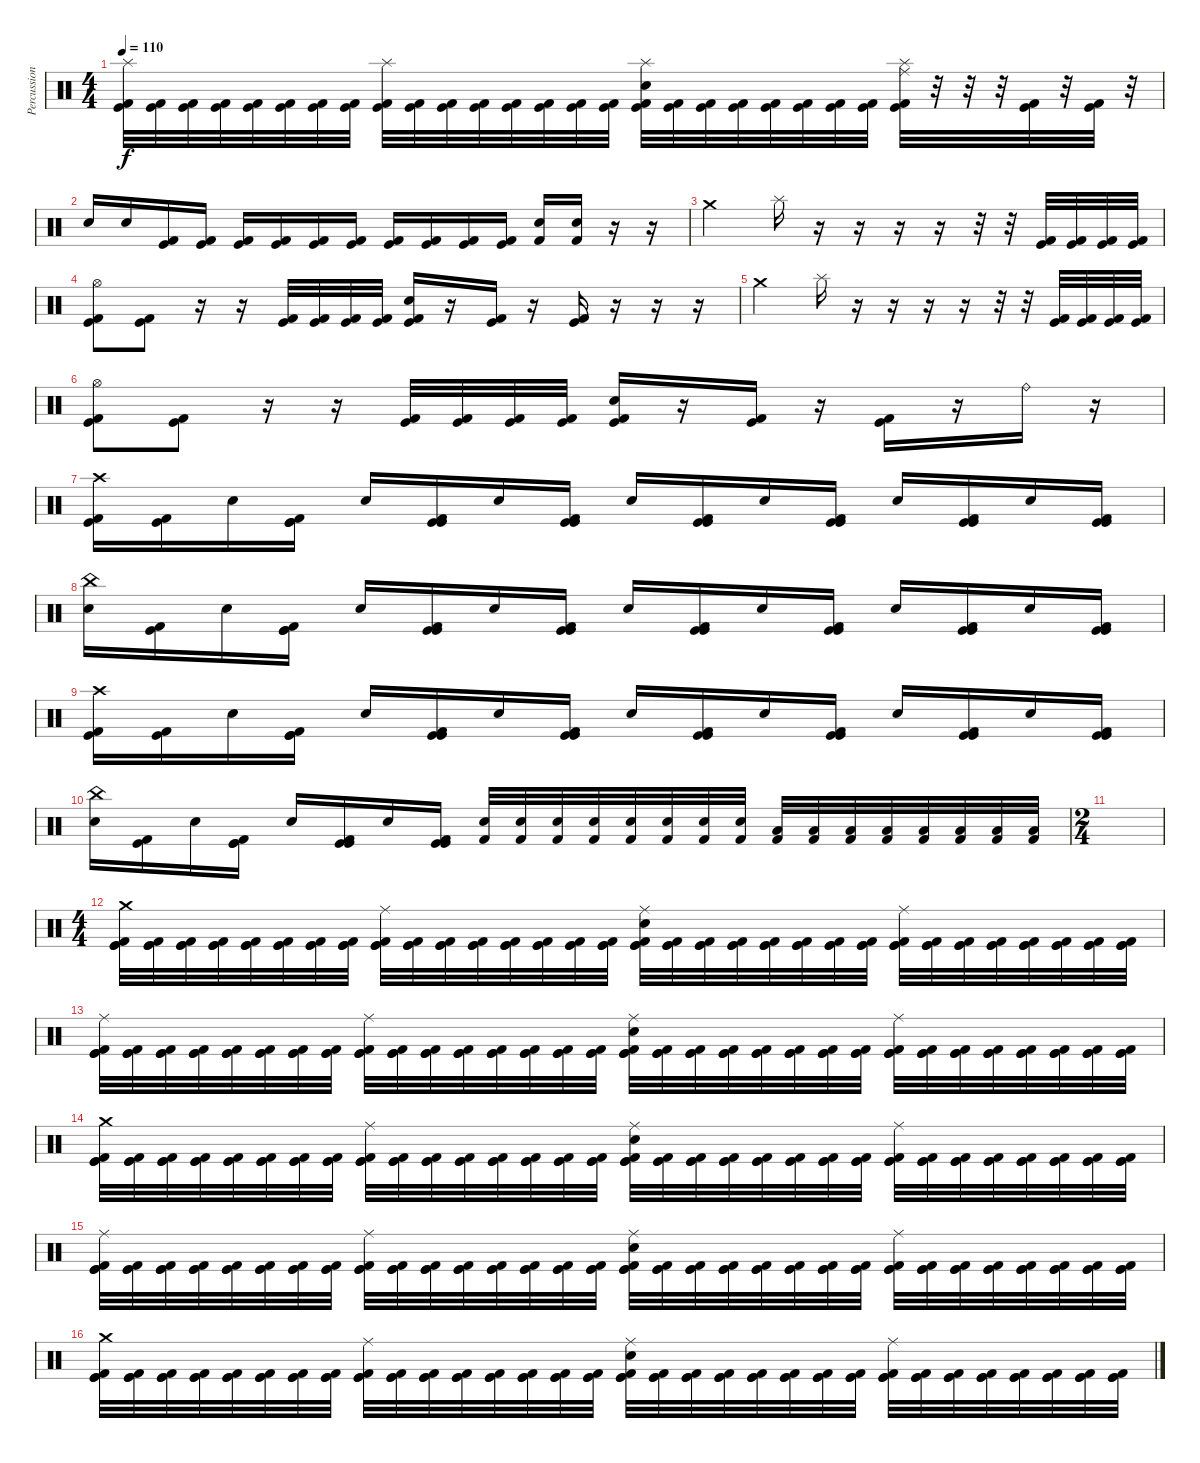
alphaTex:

\track ("Percussion" "Percussion") {instrument percussion}
\staff {score}
\articulation defaults
\ts (4 4)
\tempo 110
\clef neutral
\ks c
("Splash (hit)" "Kick (hit)" "Kick (hit) 2").32{dy f} ("Kick (hit)" "Kick (hit) 2").32 ("Kick (hit)" "Kick (hit) 2").32 ("Kick (hit)" "Kick (hit) 2").32 ("Kick (hit)" "Kick (hit) 2").32 ("Kick (hit)" "Kick (hit) 2").32 ("Kick (hit)" "Kick (hit) 2").32 ("Kick (hit)" "Kick (hit) 2").32 ("Splash (hit)" "Kick (hit)" "Kick (hit) 2").32 ("Kick (hit)" "Kick (hit) 2").32 ("Kick (hit)" "Kick (hit) 2").32 ("Kick (hit)" "Kick (hit) 2").32 ("Kick (hit)" "Kick (hit) 2").32 ("Kick (hit)" "Kick (hit) 2").32 ("Kick (hit)" "Kick (hit) 2").32 ("Kick (hit)" "Kick (hit) 2").32 ("Splash (hit)" "Electric Snare (hit)" "Kick (hit)" "Kick (hit) 2").32 ("Kick (hit)" "Kick (hit) 2").32 ("Kick (hit)" "Kick (hit) 2").32 ("Kick (hit)" "Kick (hit) 2").32 ("Kick (hit)" "Kick (hit) 2").32 ("Kick (hit)" "Kick (hit) 2").32 ("Kick (hit)" "Kick (hit) 2").32 ("Kick (hit)" "Kick (hit) 2").32 ("Splash (hit)" "Ride (middle)" "Kick (hit)" "Kick (hit) 2").32 r.32 r.32 r.32 ("Kick (hit)" "Kick (hit) 2").32 r.32 ("Kick (hit)" "Kick (hit) 2").32 r.32 |
"Electric Snare (hit)".16 "Electric Snare (hit)".16 ("Kick (hit)" "Kick (hit) 2").16 ("Kick (hit)" "Kick (hit) 2").16 ("Kick (hit)" "Kick (hit) 2").16 ("Kick (hit)" "Kick (hit) 2").16 ("Kick (hit)" "Kick (hit) 2").16 ("Kick (hit)" "Kick (hit) 2").16 ("Kick (hit)" "Kick (hit) 2").16 ("Kick (hit)" "Kick (hit) 2").16 ("Kick (hit)" "Kick (hit) 2").16 ("Kick (hit)" "Kick (hit) 2").16 ("Electric Snare (hit)" "Kick (hit) 2").16 ("Electric Snare (hit)" "Kick (hit) 2").16 r.16 r.16 |
"Crash medium (hit)".2 "Splash (hit)".16 r.16 r.16 r.16 r.16 r.32 r.32 ("Kick (hit)" "Kick (hit) 2").32 ("Kick (hit)" "Kick (hit) 2").32 ("Kick (hit)" "Kick (hit) 2").32 ("Kick (hit)" "Kick (hit) 2").32 |
("Hi-Hat (open)" "Kick (hit)" "Kick (hit) 2").8 ("Kick (hit)" "Kick (hit) 2").8 r.16 r.16 ("Kick (hit)" "Kick (hit) 2").32 ("Kick (hit)" "Kick (hit) 2").32 ("Kick (hit)" "Kick (hit) 2").32 ("Kick (hit)" "Kick (hit) 2").32 ("Electric Snare (hit)" "Kick (hit)" "Kick (hit) 2").16 r.16 ("Kick (hit)" "Kick (hit) 2").16 r.16 ("Kick (hit)" "Kick (hit) 2").16 r.16 r.16 r.16 |
"Crash medium (hit)".2 "Splash (hit)".16 r.16 r.16 r.16 r.16 r.32 r.32 ("Kick (hit)" "Kick (hit) 2").32 ("Kick (hit)" "Kick (hit) 2").32 ("Kick (hit)" "Kick (hit) 2").32 ("Kick (hit)" "Kick (hit) 2").32 |
("Hi-Hat (open)" "Kick (hit)" "Kick (hit) 2").8 ("Kick (hit)" "Kick (hit) 2").8 r.16 r.16 ("Kick (hit)" "Kick (hit) 2").32 ("Kick (hit)" "Kick (hit) 2").32 ("Kick (hit)" "Kick (hit) 2").32 ("Kick (hit)" "Kick (hit) 2").32 ("Electric Snare (hit)" "Kick (hit)" "Kick (hit) 2").16 r.16 ("Kick (hit)" "Kick (hit) 2").16 r.16 ("Kick (hit)" "Kick (hit) 2").16 r.16 "Ride (bell)".16 r.16 |
("Crash high (hit)" "Kick (hit)" "Kick (hit) 2").16 ("Kick (hit)" "Kick (hit) 2").16 "Electric Snare (hit)".16 ("Kick (hit)" "Kick (hit)" "Kick (hit) 2").16 "Electric Snare (hit)".16 ("Kick (hit)" "Kick (hit)" "Kick (hit) 2").16 "Electric Snare (hit)".16 ("Kick (hit)" "Kick (hit)" "Kick (hit) 2").16 "Electric Snare (hit)".16 ("Kick (hit)" "Kick (hit)" "Kick (hit) 2").16 "Electric Snare (hit)".16 ("Kick (hit)" "Kick (hit)" "Kick (hit) 2").16 "Electric Snare (hit)".16 ("Kick (hit)" "Kick (hit)" "Kick (hit) 2").16 "Electric Snare (hit)".16 ("Kick (hit)" "Kick (hit)" "Kick (hit) 2").16 |
("China (hit)" "Electric Snare (hit)").16 ("Kick (hit)" "Kick (hit) 2").16 "Electric Snare (hit)".16 ("Kick (hit)" "Kick (hit)" "Kick (hit) 2").16 "Electric Snare (hit)".16 ("Kick (hit)" "Kick (hit)" "Kick (hit) 2").16 "Electric Snare (hit)".16 ("Kick (hit)" "Kick (hit)" "Kick (hit) 2").16 "Electric Snare (hit)".16 ("Kick (hit)" "Kick (hit)" "Kick (hit) 2").16 "Electric Snare (hit)".16 ("Kick (hit)" "Kick (hit)" "Kick (hit) 2").16 "Electric Snare (hit)".16 ("Kick (hit)" "Kick (hit)" "Kick (hit) 2").16 "Electric Snare (hit)".16 ("Kick (hit)" "Kick (hit)" "Kick (hit) 2").16 |
("Crash high (hit)" "Kick (hit)" "Kick (hit) 2").16 ("Kick (hit)" "Kick (hit) 2").16 "Electric Snare (hit)".16 ("Kick (hit)" "Kick (hit)" "Kick (hit) 2").16 "Electric Snare (hit)".16 ("Kick (hit)" "Kick (hit)" "Kick (hit) 2").16 "Electric Snare (hit)".16 ("Kick (hit)" "Kick (hit)" "Kick (hit) 2").16 "Electric Snare (hit)".16 ("Kick (hit)" "Kick (hit)" "Kick (hit) 2").16 "Electric Snare (hit)".16 ("Kick (hit)" "Kick (hit)" "Kick (hit) 2").16 "Electric Snare (hit)".16 ("Kick (hit)" "Kick (hit)" "Kick (hit) 2").16 "Electric Snare (hit)".16 ("Kick (hit)" "Kick (hit)" "Kick (hit) 2").16 |
("China (hit)" "Electric Snare (hit)").16 ("Kick (hit)" "Kick (hit) 2").16 "Electric Snare (hit)".16 ("Kick (hit)" "Kick (hit)" "Kick (hit) 2").16 "Electric Snare (hit)".16 ("Kick (hit)" "Kick (hit)" "Kick (hit) 2").16 "Electric Snare (hit)".16 ("Kick (hit)" "Kick (hit)" "Kick (hit) 2").16 ("Electric Snare (hit)" "Kick (hit) 2").32 ("Electric Snare (hit)" "Kick (hit) 2").32 ("Electric Snare (hit)" "Kick (hit) 2").32 ("Electric Snare (hit)" "Kick (hit) 2").32 ("Electric Snare (hit)" "Kick (hit) 2").32 ("Electric Snare (hit)" "Kick (hit) 2").32 ("Electric Snare (hit)" "Kick (hit) 2").32 ("Electric Snare (hit)" "Kick (hit) 2").32 ("Low Tom (hit)" "Kick (hit) 2").32 ("Low Tom (hit)" "Kick (hit) 2").32 ("Low Tom (hit)" "Kick (hit) 2").32 ("Low Tom (hit)" "Kick (hit) 2").32 ("Low Tom (hit)" "Kick (hit) 2").32 ("Low Tom (hit)" "Kick (hit) 2").32 ("Low Tom (hit)" "Kick (hit) 2").32 ("Low Tom (hit)" "Kick (hit) 2").32 |
\ts (2 4)
|
\ts (4 4)
("Kick (hit)" "Crash medium (hit)" "Kick (hit)" "Kick (hit) 2").32 ("Kick (hit)" "Kick (hit)" "Kick (hit) 2").32 ("Kick (hit)" "Kick (hit)" "Kick (hit) 2").32 ("Kick (hit)" "Kick (hit)" "Kick (hit) 2").32 ("Kick (hit)" "Kick (hit)" "Kick (hit) 2").32 ("Kick (hit)" "Kick (hit)" "Kick (hit) 2").32 ("Kick (hit)" "Kick (hit)" "Kick (hit) 2").32 ("Kick (hit)" "Kick (hit)" "Kick (hit) 2").32 ("Kick (hit)" "Ride (middle)" "Kick (hit)" "Kick (hit) 2").32 ("Kick (hit)" "Kick (hit)" "Kick (hit) 2").32 ("Kick (hit)" "Kick (hit)" "Kick (hit) 2").32 ("Kick (hit)" "Kick (hit)" "Kick (hit) 2").32 ("Kick (hit)" "Kick (hit)" "Kick (hit) 2").32 ("Kick (hit)" "Kick (hit)" "Kick (hit) 2").32 ("Kick (hit)" "Kick (hit)" "Kick (hit) 2").32 ("Kick (hit)" "Kick (hit)" "Kick (hit) 2").32 ("Kick (hit)" "Electric Snare (hit)" "Ride (middle)" "Kick (hit)" "Kick (hit) 2").32 ("Kick (hit)" "Kick (hit)" "Kick (hit) 2").32 ("Kick (hit)" "Kick (hit)" "Kick (hit) 2").32 ("Kick (hit)" "Kick (hit)" "Kick (hit) 2").32 ("Kick (hit)" "Kick (hit)" "Kick (hit) 2").32 ("Kick (hit)" "Kick (hit)" "Kick (hit) 2").32 ("Kick (hit)" "Kick (hit)" "Kick (hit) 2").32 ("Kick (hit)" "Kick (hit)" "Kick (hit) 2").32 ("Kick (hit)" "Ride (middle)" "Kick (hit)" "Kick (hit) 2").32 ("Kick (hit)" "Kick (hit)" "Kick (hit) 2").32 ("Kick (hit)" "Kick (hit)" "Kick (hit) 2").32 ("Kick (hit)" "Kick (hit)" "Kick (hit) 2").32 ("Kick (hit)" "Kick (hit)" "Kick (hit) 2").32 ("Kick (hit)" "Kick (hit)" "Kick (hit) 2").32 ("Kick (hit)" "Kick (hit)" "Kick (hit) 2").32 ("Kick (hit)" "Kick (hit)" "Kick (hit) 2").32 |
("Kick (hit)" "Ride (middle)" "Kick (hit)" "Kick (hit) 2").32 ("Kick (hit)" "Kick (hit)" "Kick (hit) 2").32 ("Kick (hit)" "Kick (hit)" "Kick (hit) 2").32 ("Kick (hit)" "Kick (hit)" "Kick (hit) 2").32 ("Kick (hit)" "Kick (hit)" "Kick (hit) 2").32 ("Kick (hit)" "Kick (hit)" "Kick (hit) 2").32 ("Kick (hit)" "Kick (hit)" "Kick (hit) 2").32 ("Kick (hit)" "Kick (hit)" "Kick (hit) 2").32 ("Kick (hit)" "Ride (middle)" "Kick (hit)" "Kick (hit) 2").32 ("Kick (hit)" "Kick (hit)" "Kick (hit) 2").32 ("Kick (hit)" "Kick (hit)" "Kick (hit) 2").32 ("Kick (hit)" "Kick (hit)" "Kick (hit) 2").32 ("Kick (hit)" "Kick (hit)" "Kick (hit) 2").32 ("Kick (hit)" "Kick (hit)" "Kick (hit) 2").32 ("Kick (hit)" "Kick (hit)" "Kick (hit) 2").32 ("Kick (hit)" "Kick (hit)" "Kick (hit) 2").32 ("Kick (hit)" "Electric Snare (hit)" "Ride (middle)" "Kick (hit)" "Kick (hit) 2").32 ("Kick (hit)" "Kick (hit)" "Kick (hit) 2").32 ("Kick (hit)" "Kick (hit)" "Kick (hit) 2").32 ("Kick (hit)" "Kick (hit)" "Kick (hit) 2").32 ("Kick (hit)" "Kick (hit)" "Kick (hit) 2").32 ("Kick (hit)" "Kick (hit)" "Kick (hit) 2").32 ("Kick (hit)" "Kick (hit)" "Kick (hit) 2").32 ("Kick (hit)" "Kick (hit)" "Kick (hit) 2").32 ("Kick (hit)" "Ride (middle)" "Kick (hit)" "Kick (hit) 2").32 ("Kick (hit)" "Kick (hit)" "Kick (hit) 2").32 ("Kick (hit)" "Kick (hit)" "Kick (hit) 2").32 ("Kick (hit)" "Kick (hit)" "Kick (hit) 2").32 ("Kick (hit)" "Kick (hit)" "Kick (hit) 2").32 ("Kick (hit)" "Kick (hit)" "Kick (hit) 2").32 ("Kick (hit)" "Kick (hit)" "Kick (hit) 2").32 ("Kick (hit)" "Kick (hit)" "Kick (hit) 2").32 |
("Kick (hit)" "Crash medium (hit)" "Kick (hit)" "Kick (hit) 2").32 ("Kick (hit)" "Kick (hit)" "Kick (hit) 2").32 ("Kick (hit)" "Kick (hit)" "Kick (hit) 2").32 ("Kick (hit)" "Kick (hit)" "Kick (hit) 2").32 ("Kick (hit)" "Kick (hit)" "Kick (hit) 2").32 ("Kick (hit)" "Kick (hit)" "Kick (hit) 2").32 ("Kick (hit)" "Kick (hit)" "Kick (hit) 2").32 ("Kick (hit)" "Kick (hit)" "Kick (hit) 2").32 ("Kick (hit)" "Ride (middle)" "Kick (hit)" "Kick (hit) 2").32 ("Kick (hit)" "Kick (hit)" "Kick (hit) 2").32 ("Kick (hit)" "Kick (hit)" "Kick (hit) 2").32 ("Kick (hit)" "Kick (hit)" "Kick (hit) 2").32 ("Kick (hit)" "Kick (hit)" "Kick (hit) 2").32 ("Kick (hit)" "Kick (hit)" "Kick (hit) 2").32 ("Kick (hit)" "Kick (hit)" "Kick (hit) 2").32 ("Kick (hit)" "Kick (hit)" "Kick (hit) 2").32 ("Kick (hit)" "Electric Snare (hit)" "Ride (middle)" "Kick (hit)" "Kick (hit) 2").32 ("Kick (hit)" "Kick (hit)" "Kick (hit) 2").32 ("Kick (hit)" "Kick (hit)" "Kick (hit) 2").32 ("Kick (hit)" "Kick (hit)" "Kick (hit) 2").32 ("Kick (hit)" "Kick (hit)" "Kick (hit) 2").32 ("Kick (hit)" "Kick (hit)" "Kick (hit) 2").32 ("Kick (hit)" "Kick (hit)" "Kick (hit) 2").32 ("Kick (hit)" "Kick (hit)" "Kick (hit) 2").32 ("Kick (hit)" "Ride (middle)" "Kick (hit)" "Kick (hit) 2").32 ("Kick (hit)" "Kick (hit)" "Kick (hit) 2").32 ("Kick (hit)" "Kick (hit)" "Kick (hit) 2").32 ("Kick (hit)" "Kick (hit)" "Kick (hit) 2").32 ("Kick (hit)" "Kick (hit)" "Kick (hit) 2").32 ("Kick (hit)" "Kick (hit)" "Kick (hit) 2").32 ("Kick (hit)" "Kick (hit)" "Kick (hit) 2").32 ("Kick (hit)" "Kick (hit)" "Kick (hit) 2").32 |
("Kick (hit)" "Ride (middle)" "Kick (hit)" "Kick (hit) 2").32 ("Kick (hit)" "Kick (hit)" "Kick (hit) 2").32 ("Kick (hit)" "Kick (hit)" "Kick (hit) 2").32 ("Kick (hit)" "Kick (hit)" "Kick (hit) 2").32 ("Kick (hit)" "Kick (hit)" "Kick (hit) 2").32 ("Kick (hit)" "Kick (hit)" "Kick (hit) 2").32 ("Kick (hit)" "Kick (hit)" "Kick (hit) 2").32 ("Kick (hit)" "Kick (hit)" "Kick (hit) 2").32 ("Kick (hit)" "Ride (middle)" "Kick (hit)" "Kick (hit) 2").32 ("Kick (hit)" "Kick (hit)" "Kick (hit) 2").32 ("Kick (hit)" "Kick (hit)" "Kick (hit) 2").32 ("Kick (hit)" "Kick (hit)" "Kick (hit) 2").32 ("Kick (hit)" "Kick (hit)" "Kick (hit) 2").32 ("Kick (hit)" "Kick (hit)" "Kick (hit) 2").32 ("Kick (hit)" "Kick (hit)" "Kick (hit) 2").32 ("Kick (hit)" "Kick (hit)" "Kick (hit) 2").32 ("Kick (hit)" "Electric Snare (hit)" "Ride (middle)" "Kick (hit)" "Kick (hit) 2").32 ("Kick (hit)" "Kick (hit)" "Kick (hit) 2").32 ("Kick (hit)" "Kick (hit)" "Kick (hit) 2").32 ("Kick (hit)" "Kick (hit)" "Kick (hit) 2").32 ("Kick (hit)" "Kick (hit)" "Kick (hit) 2").32 ("Kick (hit)" "Kick (hit)" "Kick (hit) 2").32 ("Kick (hit)" "Kick (hit)" "Kick (hit) 2").32 ("Kick (hit)" "Kick (hit)" "Kick (hit) 2").32 ("Kick (hit)" "Ride (middle)" "Kick (hit)" "Kick (hit) 2").32 ("Kick (hit)" "Kick (hit)" "Kick (hit) 2").32 ("Kick (hit)" "Kick (hit)" "Kick (hit) 2").32 ("Kick (hit)" "Kick (hit)" "Kick (hit) 2").32 ("Kick (hit)" "Kick (hit)" "Kick (hit) 2").32 ("Kick (hit)" "Kick (hit)" "Kick (hit) 2").32 ("Kick (hit)" "Kick (hit)" "Kick (hit) 2").32 ("Kick (hit)" "Kick (hit)" "Kick (hit) 2").32 |
("Kick (hit)" "Crash medium (hit)" "Kick (hit)" "Kick (hit) 2").32 ("Kick (hit)" "Kick (hit)" "Kick (hit) 2").32 ("Kick (hit)" "Kick (hit)" "Kick (hit) 2").32 ("Kick (hit)" "Kick (hit)" "Kick (hit) 2").32 ("Kick (hit)" "Kick (hit)" "Kick (hit) 2").32 ("Kick (hit)" "Kick (hit)" "Kick (hit) 2").32 ("Kick (hit)" "Kick (hit)" "Kick (hit) 2").32 ("Kick (hit)" "Kick (hit)" "Kick (hit) 2").32 ("Kick (hit)" "Ride (middle)" "Kick (hit)" "Kick (hit) 2").32 ("Kick (hit)" "Kick (hit)" "Kick (hit) 2").32 ("Kick (hit)" "Kick (hit)" "Kick (hit) 2").32 ("Kick (hit)" "Kick (hit)" "Kick (hit) 2").32 ("Kick (hit)" "Kick (hit)" "Kick (hit) 2").32 ("Kick (hit)" "Kick (hit)" "Kick (hit) 2").32 ("Kick (hit)" "Kick (hit)" "Kick (hit) 2").32 ("Kick (hit)" "Kick (hit)" "Kick (hit) 2").32 ("Kick (hit)" "Electric Snare (hit)" "Ride (middle)" "Kick (hit)" "Kick (hit) 2").32 ("Kick (hit)" "Kick (hit)" "Kick (hit) 2").32 ("Kick (hit)" "Kick (hit)" "Kick (hit) 2").32 ("Kick (hit)" "Kick (hit)" "Kick (hit) 2").32 ("Kick (hit)" "Kick (hit)" "Kick (hit) 2").32 ("Kick (hit)" "Kick (hit)" "Kick (hit) 2").32 ("Kick (hit)" "Kick (hit)" "Kick (hit) 2").32 ("Kick (hit)" "Kick (hit)" "Kick (hit) 2").32 ("Kick (hit)" "Ride (middle)" "Kick (hit)" "Kick (hit) 2").32 ("Kick (hit)" "Kick (hit)" "Kick (hit) 2").32 ("Kick (hit)" "Kick (hit)" "Kick (hit) 2").32 ("Kick (hit)" "Kick (hit)" "Kick (hit) 2").32 ("Kick (hit)" "Kick (hit)" "Kick (hit) 2").32 ("Kick (hit)" "Kick (hit)" "Kick (hit) 2").32 ("Kick (hit)" "Kick (hit)" "Kick (hit) 2").32 ("Kick (hit)" "Kick (hit)" "Kick (hit) 2").32
